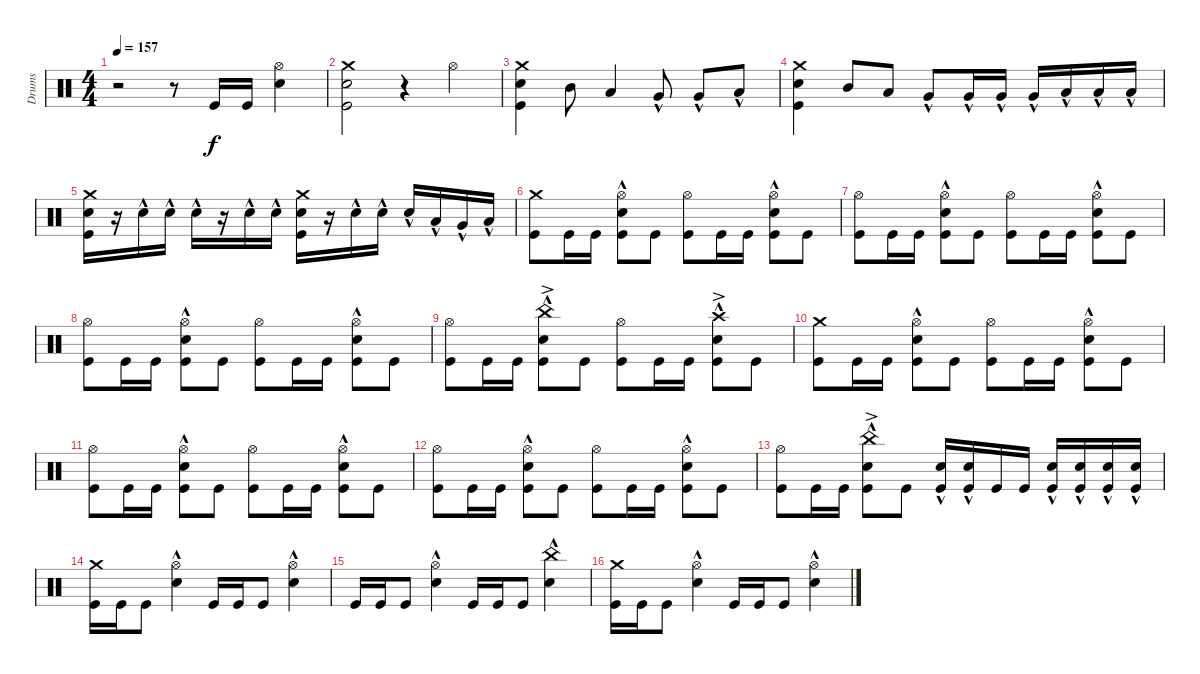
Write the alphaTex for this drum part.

\track ("Drums" "Drums") {solo instrument percussion}
\staff {score}
\articulation defaults
\ts (4 4)
\tempo 157
\clef neutral
\ks c
r.2{dy f} r.8 "Kick (hit)".16 "Kick (hit)".16 ("Snare (hit) 2" "Hi-Hat (open)").4 |
("Crash medium (hit)" "Snare (hit) 2" "Kick (hit)").2 r.4 "Hi-Hat (open)".4 |
("Kick (hit)" "Snare (hit) 2" "Crash medium (hit)").4 "Mid Tom (hit)".8 "Low Tom (hit)".4 "Very Low Tom (hit)"{hac}.8 "Very Low Tom (hit)"{hac}.8 "Low Floor Tom (hit)"{hac}.8 |
("Kick (hit)" "Snare (hit) 2" "Crash medium (hit)").4 "Mid Tom (hit)".8 "Low Tom (hit)".8 "Very Low Tom (hit)"{hac}.8 "Very Low Tom (hit)"{hac}.16 "Very Low Tom (hit)"{hac}.16 "Very Low Tom (hit)"{hac}.16 "Low Floor Tom (hit)"{hac}.16 "Low Floor Tom (hit)"{hac}.16 "Low Floor Tom (hit)"{hac}.16 |
("Kick (hit)" "Snare (hit) 2" "Crash medium (hit)").16 r.16 "Snare (hit) 2"{hac}.16 "Snare (hit) 2"{hac}.16 "Snare (hit) 2"{hac}.16 r.16 "Snare (hit) 2"{hac}.16 "Snare (hit) 2"{hac}.16 ("Snare (hit) 2" "Crash medium (hit)" "Kick (hit)").16 r.16 "Snare (hit) 2"{hac}.16 "Snare (hit) 2"{hac}.16 "Snare (hit) 2"{hac}.16 "Low Tom (hit)"{hac}.16 "Very Low Tom (hit)"{hac}.16 "Low Floor Tom (hit)"{hac}.16 |
("Crash medium (hit)" "Kick (hit)").8 "Kick (hit)".16 "Kick (hit)".16 ("Snare (hit) 2"{hac} "Hi-Hat (open)" "Kick (hit)").8 "Kick (hit)".8 ("Kick (hit)" "Hi-Hat (open)").8 "Kick (hit)".16 "Kick (hit)".16 ("Snare (hit) 2"{hac} "Hi-Hat (open)" "Kick (hit)").8 "Kick (hit)".8 |
("Kick (hit)" "Hi-Hat (open)").8 "Kick (hit)".16 "Kick (hit)".16 ("Snare (hit) 2"{hac} "Hi-Hat (open)" "Kick (hit)").8 "Kick (hit)".8 ("Kick (hit)" "Hi-Hat (open)").8 "Kick (hit)".16 "Kick (hit)".16 ("Snare (hit) 2"{hac} "Hi-Hat (open)" "Kick (hit)").8 "Kick (hit)".8 |
("Kick (hit)" "Hi-Hat (open)").8 "Kick (hit)".16 "Kick (hit)".16 ("Snare (hit) 2"{hac} "Hi-Hat (open)" "Kick (hit)").8 "Kick (hit)".8 ("Kick (hit)" "Hi-Hat (open)").8 "Kick (hit)".16 "Kick (hit)".16 ("Snare (hit) 2"{hac} "Hi-Hat (open)" "Kick (hit)").8 "Kick (hit)".8 |
("Kick (hit)" "Hi-Hat (open)").8 "Kick (hit)".16 "Kick (hit)".16 ("Snare (hit) 2"{hac} "China (hit)"{ac} "Kick (hit)").8 "Kick (hit)".8 ("Kick (hit)" "Hi-Hat (open)").8 "Kick (hit)".16 "Kick (hit)".16 ("Snare (hit) 2"{hac} "Crash high (hit)"{ac} "Kick (hit)").8 "Kick (hit)".8 |
("Crash medium (hit)" "Kick (hit)").8 "Kick (hit)".16 "Kick (hit)".16 ("Snare (hit) 2"{hac} "Hi-Hat (open)" "Kick (hit)").8 "Kick (hit)".8 ("Kick (hit)" "Hi-Hat (open)").8 "Kick (hit)".16 "Kick (hit)".16 ("Snare (hit) 2"{hac} "Hi-Hat (open)" "Kick (hit)").8 "Kick (hit)".8 |
("Kick (hit)" "Hi-Hat (open)").8 "Kick (hit)".16 "Kick (hit)".16 ("Snare (hit) 2"{hac} "Hi-Hat (open)" "Kick (hit)").8 "Kick (hit)".8 ("Kick (hit)" "Hi-Hat (open)").8 "Kick (hit)".16 "Kick (hit)".16 ("Snare (hit) 2"{hac} "Hi-Hat (open)" "Kick (hit)").8 "Kick (hit)".8 |
("Kick (hit)" "Hi-Hat (open)").8 "Kick (hit)".16 "Kick (hit)".16 ("Snare (hit) 2"{hac} "Hi-Hat (open)" "Kick (hit)").8 "Kick (hit)".8 ("Kick (hit)" "Hi-Hat (open)").8 "Kick (hit)".16 "Kick (hit)".16 ("Snare (hit) 2"{hac} "Hi-Hat (open)" "Kick (hit)").8 "Kick (hit)".8 |
("Kick (hit)" "Hi-Hat (open)").8 "Kick (hit)".16 "Kick (hit)".16 ("Snare (hit) 2"{hac} "China (hit)"{ac} "Kick (hit)").8 "Kick (hit)".8 ("Snare (hit) 2"{hac} "Kick (hit)").16 ("Snare (hit) 2"{hac} "Kick (hit)").16 "Kick (hit)".16 "Kick (hit)".16 ("Snare (hit) 2"{hac} "Kick (hit)").16 ("Snare (hit) 2"{hac} "Kick (hit)").16 ("Snare (hit) 2"{hac} "Kick (hit)").16 ("Snare (hit) 2"{hac} "Kick (hit)").16 |
("Kick (hit)" "Crash medium (hit)").16 "Kick (hit)".16 "Kick (hit)".8 ("Snare (hit) 2"{hac} "Hi-Hat (open)").4 "Kick (hit)".16 "Kick (hit)".16 "Kick (hit)".8 ("Snare (hit) 2"{hac} "Hi-Hat (open)").4 |
"Kick (hit)".16 "Kick (hit)".16 "Kick (hit)".8 ("Snare (hit) 2"{hac} "Hi-Hat (open)").4 "Kick (hit)".16 "Kick (hit)".16 "Kick (hit)".8 ("Snare (hit) 2"{hac} "China (hit)"{hac}).4 |
("Kick (hit)" "Crash medium (hit)").16 "Kick (hit)".16 "Kick (hit)".8 ("Snare (hit) 2"{hac} "Hi-Hat (open)").4 "Kick (hit)".16 "Kick (hit)".16 "Kick (hit)".8 ("Snare (hit) 2"{hac} "Hi-Hat (open)").4
